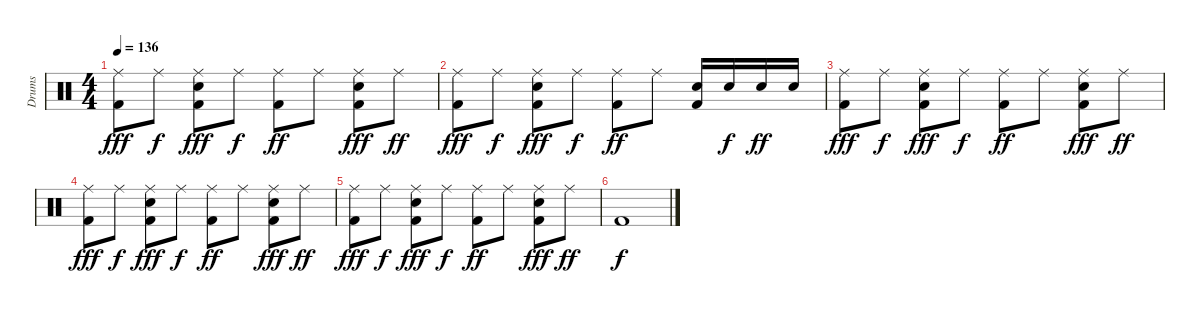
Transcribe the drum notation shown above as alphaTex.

\track ("Drums" "Drums") {instrument percussion}
\staff {score}
\articulation defaults
\ts (4 4)
\tempo 136
\clef neutral
\ks c
("Kick (hit) 2" "Ride (middle)").8{dy fff} "Ride (middle)".8{dy f} ("Kick (hit) 2" "Electric Snare (hit)" "Ride (middle)").8{dy fff} "Ride (middle)".8{dy f} ("Kick (hit) 2" "Ride (middle)").8{dy ff} "Ride (middle)".8 ("Kick (hit) 2" "Electric Snare (hit)" "Ride (middle)").8{dy fff} "Ride (middle)".8{dy ff} |
("Kick (hit) 2" "Ride (middle)").8{dy fff} "Ride (middle)".8{dy f} ("Kick (hit) 2" "Electric Snare (hit)" "Ride (middle)").8{dy fff} "Ride (middle)".8{dy f} ("Kick (hit) 2" "Ride (middle)").8{dy ff} "Ride (middle)".8 ("Kick (hit) 2" "Electric Snare (hit)").16 "Electric Snare (hit)".16{dy f} "Electric Snare (hit)".16{dy ff} "Electric Snare (hit)".16 |
("Kick (hit) 2" "Ride (middle)").8{dy fff} "Ride (middle)".8{dy f} ("Kick (hit) 2" "Electric Snare (hit)" "Ride (middle)").8{dy fff} "Ride (middle)".8{dy f} ("Kick (hit) 2" "Ride (middle)").8{dy ff} "Ride (middle)".8 ("Kick (hit) 2" "Electric Snare (hit)" "Ride (middle)").8{dy fff} "Ride (middle)".8{dy ff} |
("Kick (hit) 2" "Ride (middle)").8{dy fff} "Ride (middle)".8{dy f} ("Kick (hit) 2" "Electric Snare (hit)" "Ride (middle)").8{dy fff} "Ride (middle)".8{dy f} ("Kick (hit) 2" "Ride (middle)").8{dy ff} "Ride (middle)".8 ("Kick (hit) 2" "Electric Snare (hit)" "Ride (middle)").8{dy fff} "Ride (middle)".8{dy ff} |
("Kick (hit) 2" "Ride (middle)").8{dy fff} "Ride (middle)".8{dy f} ("Kick (hit) 2" "Electric Snare (hit)" "Ride (middle)").8{dy fff} "Ride (middle)".8{dy f} ("Kick (hit) 2" "Ride (middle)").8{dy ff} "Ride (middle)".8 ("Kick (hit) 2" "Electric Snare (hit)" "Ride (middle)").8{dy fff} "Ride (middle)".8{dy ff} |
"Kick (hit) 2".1{dy f}
